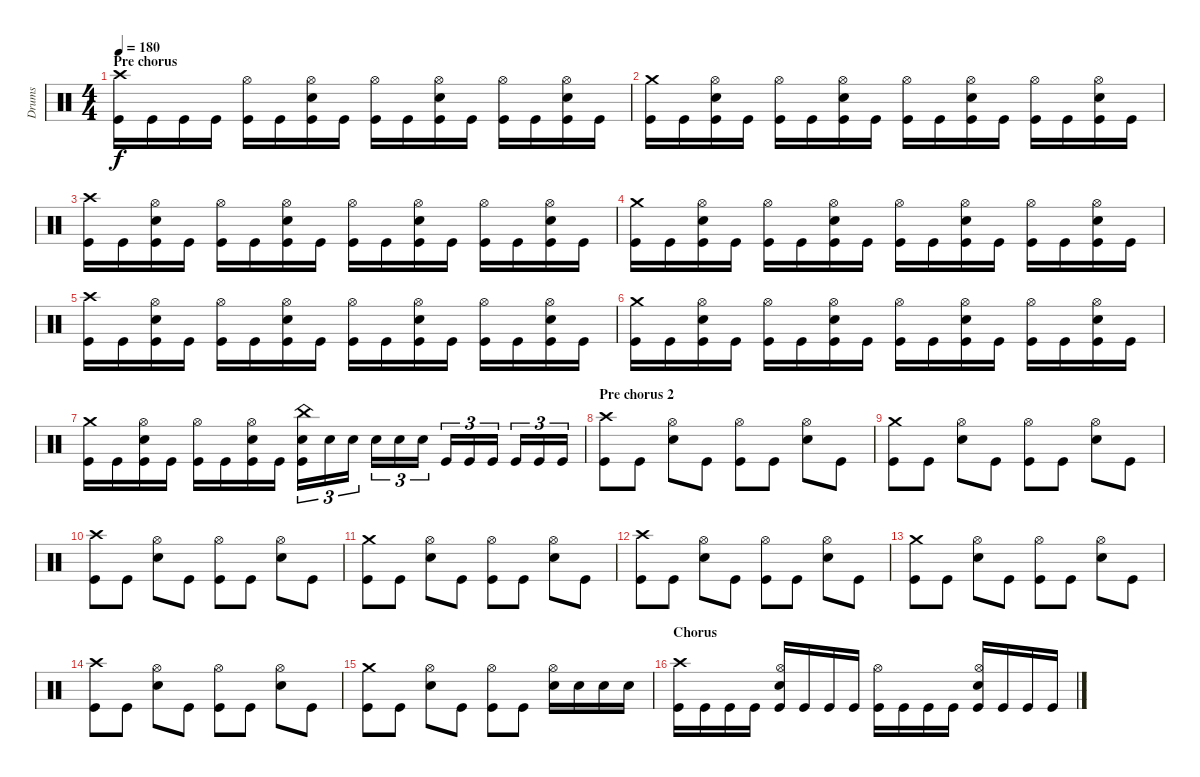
\track ("Drums" "Drums") {instrument percussion}
\staff {score}
\articulation defaults
\ts (4 4)
\section ("" "Pre chorus")
\tempo 180
\clef neutral
\ks c
("Crash high (hit)" "Kick (hit)").16{dy f} "Kick (hit)".16 "Kick (hit)".16 "Kick (hit)".16 ("Hi-Hat (open)" "Kick (hit)").16 "Kick (hit)".16 ("Hi-Hat (open)" "Snare (hit) 2" "Kick (hit)").16 "Kick (hit)".16 ("Hi-Hat (open)" "Kick (hit)").16 "Kick (hit)".16 ("Hi-Hat (open)" "Snare (hit) 2" "Kick (hit)").16 "Kick (hit)".16 ("Hi-Hat (open)" "Kick (hit)").16 "Kick (hit)".16 ("Hi-Hat (open)" "Snare (hit) 2" "Kick (hit)").16 "Kick (hit)".16 |
("Crash medium (hit)" "Kick (hit)").16 "Kick (hit)".16 ("Hi-Hat (open)" "Snare (hit) 2" "Kick (hit)").16 "Kick (hit)".16 ("Hi-Hat (open)" "Kick (hit)").16 "Kick (hit)".16 ("Hi-Hat (open)" "Snare (hit) 2" "Kick (hit)").16 "Kick (hit)".16 ("Hi-Hat (open)" "Kick (hit)").16 "Kick (hit)".16 ("Hi-Hat (open)" "Snare (hit) 2" "Kick (hit)").16 "Kick (hit)".16 ("Hi-Hat (open)" "Kick (hit)").16 "Kick (hit)".16 ("Hi-Hat (open)" "Snare (hit) 2" "Kick (hit)").16 "Kick (hit)".16 |
("Crash high (hit)" "Kick (hit)").16 "Kick (hit)".16 ("Hi-Hat (open)" "Snare (hit) 2" "Kick (hit)").16 "Kick (hit)".16 ("Hi-Hat (open)" "Kick (hit)").16 "Kick (hit)".16 ("Hi-Hat (open)" "Snare (hit) 2" "Kick (hit)").16 "Kick (hit)".16 ("Hi-Hat (open)" "Kick (hit)").16 "Kick (hit)".16 ("Hi-Hat (open)" "Snare (hit) 2" "Kick (hit)").16 "Kick (hit)".16 ("Hi-Hat (open)" "Kick (hit)").16 "Kick (hit)".16 ("Hi-Hat (open)" "Snare (hit) 2" "Kick (hit)").16 "Kick (hit)".16 |
("Crash medium (hit)" "Kick (hit)").16 "Kick (hit)".16 ("Hi-Hat (open)" "Snare (hit) 2" "Kick (hit)").16 "Kick (hit)".16 ("Hi-Hat (open)" "Kick (hit)").16 "Kick (hit)".16 ("Hi-Hat (open)" "Snare (hit) 2" "Kick (hit)").16 "Kick (hit)".16 ("Hi-Hat (open)" "Kick (hit)").16 "Kick (hit)".16 ("Hi-Hat (open)" "Snare (hit) 2" "Kick (hit)").16 "Kick (hit)".16 ("Hi-Hat (open)" "Kick (hit)").16 "Kick (hit)".16 ("Hi-Hat (open)" "Snare (hit) 2" "Kick (hit)").16 "Kick (hit)".16 |
("Crash high (hit)" "Kick (hit)").16 "Kick (hit)".16 ("Hi-Hat (open)" "Snare (hit) 2" "Kick (hit)").16 "Kick (hit)".16 ("Hi-Hat (open)" "Kick (hit)").16 "Kick (hit)".16 ("Hi-Hat (open)" "Snare (hit) 2" "Kick (hit)").16 "Kick (hit)".16 ("Hi-Hat (open)" "Kick (hit)").16 "Kick (hit)".16 ("Hi-Hat (open)" "Snare (hit) 2" "Kick (hit)").16 "Kick (hit)".16 ("Hi-Hat (open)" "Kick (hit)").16 "Kick (hit)".16 ("Hi-Hat (open)" "Snare (hit) 2" "Kick (hit)").16 "Kick (hit)".16 |
("Crash medium (hit)" "Kick (hit)").16 "Kick (hit)".16 ("Hi-Hat (open)" "Snare (hit) 2" "Kick (hit)").16 "Kick (hit)".16 ("Hi-Hat (open)" "Kick (hit)").16 "Kick (hit)".16 ("Hi-Hat (open)" "Snare (hit) 2" "Kick (hit)").16 "Kick (hit)".16 ("Hi-Hat (open)" "Kick (hit)").16 "Kick (hit)".16 ("Hi-Hat (open)" "Snare (hit) 2" "Kick (hit)").16 "Kick (hit)".16 ("Hi-Hat (open)" "Kick (hit)").16 "Kick (hit)".16 ("Hi-Hat (open)" "Snare (hit) 2" "Kick (hit)").16 "Kick (hit)".16 |
("Crash medium (hit)" "Kick (hit)").16 "Kick (hit)".16 ("Hi-Hat (open)" "Snare (hit) 2" "Kick (hit)").16 "Kick (hit)".16 ("Hi-Hat (open)" "Kick (hit)").16 "Kick (hit)".16 ("Hi-Hat (open)" "Snare (hit) 2" "Kick (hit)").16 "Kick (hit)".16 ("China (hit)" "Snare (hit) 2" "Kick (hit)").16{tu (3 2)} "Snare (hit) 2".16{tu (3 2)} "Snare (hit) 2".16{tu (3 2)} "Snare (hit) 2".16{tu (3 2)} "Snare (hit) 2".16{tu (3 2)} "Snare (hit) 2".16{tu (3 2)} "Kick (hit)".16{tu (3 2)} "Kick (hit)".16{tu (3 2)} "Kick (hit)".16{tu (3 2)} "Kick (hit)".16{tu (3 2)} "Kick (hit)".16{tu (3 2)} "Kick (hit)".16{tu (3 2)} |
\section ("" "Pre chorus 2")
("Crash high (hit)" "Kick (hit)").8 "Kick (hit)".8 ("Hi-Hat (open)" "Snare (hit) 2").8 "Kick (hit)".8 ("Hi-Hat (open)" "Kick (hit)").8 "Kick (hit)".8 ("Hi-Hat (open)" "Snare (hit) 2").8 "Kick (hit)".8 |
("Crash medium (hit)" "Kick (hit)").8 "Kick (hit)".8 ("Hi-Hat (open)" "Snare (hit) 2").8 "Kick (hit)".8 ("Hi-Hat (open)" "Kick (hit)").8 "Kick (hit)".8 ("Hi-Hat (open)" "Snare (hit) 2").8 "Kick (hit)".8 |
("Crash high (hit)" "Kick (hit)").8 "Kick (hit)".8 ("Hi-Hat (open)" "Snare (hit) 2").8 "Kick (hit)".8 ("Hi-Hat (open)" "Kick (hit)").8 "Kick (hit)".8 ("Hi-Hat (open)" "Snare (hit) 2").8 "Kick (hit)".8 |
("Crash medium (hit)" "Kick (hit)").8 "Kick (hit)".8 ("Hi-Hat (open)" "Snare (hit) 2").8 "Kick (hit)".8 ("Hi-Hat (open)" "Kick (hit)").8 "Kick (hit)".8 ("Hi-Hat (open)" "Snare (hit) 2").8 "Kick (hit)".8 |
("Crash high (hit)" "Kick (hit)").8 "Kick (hit)".8 ("Hi-Hat (open)" "Snare (hit) 2").8 "Kick (hit)".8 ("Hi-Hat (open)" "Kick (hit)").8 "Kick (hit)".8 ("Hi-Hat (open)" "Snare (hit) 2").8 "Kick (hit)".8 |
("Crash medium (hit)" "Kick (hit)").8 "Kick (hit)".8 ("Hi-Hat (open)" "Snare (hit) 2").8 "Kick (hit)".8 ("Hi-Hat (open)" "Kick (hit)").8 "Kick (hit)".8 ("Hi-Hat (open)" "Snare (hit) 2").8 "Kick (hit)".8 |
("Crash high (hit)" "Kick (hit)").8 "Kick (hit)".8 ("Hi-Hat (open)" "Snare (hit) 2").8 "Kick (hit)".8 ("Hi-Hat (open)" "Kick (hit)").8 "Kick (hit)".8 ("Hi-Hat (open)" "Snare (hit) 2").8 "Kick (hit)".8 |
("Crash medium (hit)" "Kick (hit)").8 "Kick (hit)".8 ("Hi-Hat (open)" "Snare (hit) 2").8 "Kick (hit)".8 ("Hi-Hat (open)" "Kick (hit)").8 "Kick (hit)".8 ("Hi-Hat (open)" "Snare (hit) 2").16 "Snare (hit) 2".16 "Snare (hit) 2".16 "Snare (hit) 2".16 |
\section ("" "Chorus")
("Crash high (hit)" "Kick (hit)").16 "Kick (hit)".16 "Kick (hit)".16 "Kick (hit)".16 ("Hi-Hat (open)" "Snare (hit) 2" "Kick (hit)").16 "Kick (hit)".16 "Kick (hit)".16 "Kick (hit)".16 ("Hi-Hat (open)" "Kick (hit)").16 "Kick (hit)".16 "Kick (hit)".16 "Kick (hit)".16 ("Hi-Hat (open)" "Snare (hit) 2" "Kick (hit)").16 "Kick (hit)".16 "Kick (hit)".16 "Kick (hit)".16
